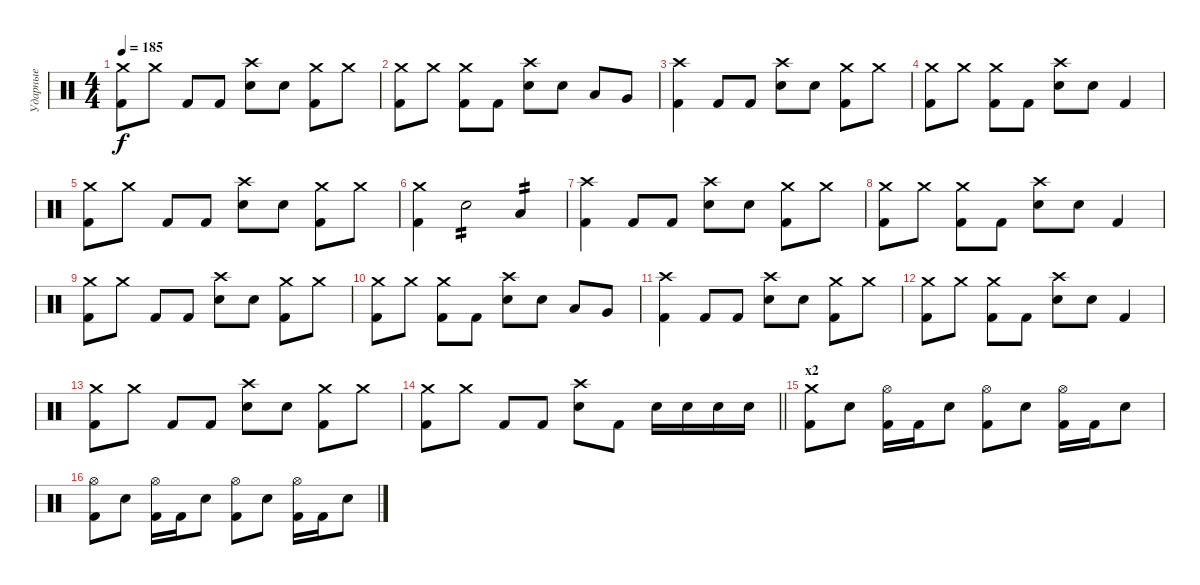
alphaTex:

\track ("Ударные" "Ударные") {instrument percussion}
\staff {score}
\articulation defaults
\ts (4 4)
\tempo 185
\clef neutral
\ks c
("Crash medium (hit)" "Kick (hit) 2").8{dy f} "Crash medium (hit)".8 "Kick (hit) 2".8 "Kick (hit) 2".8 ("Crash high (hit)" "Electric Snare (hit)").8 "Electric Snare (hit)".8 ("Crash medium (hit)" "Kick (hit) 2").8 "Crash medium (hit)".8 |
("Crash medium (hit)" "Kick (hit) 2").8 "Crash medium (hit)".8 ("Crash medium (hit)" "Kick (hit) 2").8 "Kick (hit) 2".8 ("Crash high (hit)" "Electric Snare (hit)").8 "Electric Snare (hit)".8 "Low Tom (hit)".8 "Very Low Tom (hit)".8 |
("Crash high (hit)" "Kick (hit) 2").4 "Kick (hit) 2".8 "Kick (hit) 2".8 ("Crash high (hit)" "Electric Snare (hit)").8 "Electric Snare (hit)".8 ("Crash medium (hit)" "Kick (hit) 2").8 "Crash medium (hit)".8 |
("Crash medium (hit)" "Kick (hit) 2").8 "Crash medium (hit)".8 ("Crash medium (hit)" "Kick (hit) 2").8 "Kick (hit) 2".8 ("Crash high (hit)" "Electric Snare (hit)").8 "Electric Snare (hit)".8 "Kick (hit) 2".4 |
("Crash medium (hit)" "Kick (hit) 2").8 "Crash medium (hit)".8 "Kick (hit) 2".8 "Kick (hit) 2".8 ("Crash high (hit)" "Electric Snare (hit)").8 "Electric Snare (hit)".8 ("Crash medium (hit)" "Kick (hit) 2").8 "Crash medium (hit)".8 |
("Crash medium (hit)" "Kick (hit) 2").4 "Electric Snare (hit)".2{tp 2} "Low Tom (hit)".4{tp 2} |
("Crash high (hit)" "Kick (hit) 2").4 "Kick (hit) 2".8 "Kick (hit) 2".8 ("Crash high (hit)" "Electric Snare (hit)").8 "Electric Snare (hit)".8 ("Crash medium (hit)" "Kick (hit) 2").8 "Crash medium (hit)".8 |
("Crash medium (hit)" "Kick (hit) 2").8 "Crash medium (hit)".8 ("Crash medium (hit)" "Kick (hit) 2").8 "Kick (hit) 2".8 ("Crash high (hit)" "Electric Snare (hit)").8 "Electric Snare (hit)".8 "Kick (hit) 2".4 |
("Crash medium (hit)" "Kick (hit) 2").8 "Crash medium (hit)".8 "Kick (hit) 2".8 "Kick (hit) 2".8 ("Crash high (hit)" "Electric Snare (hit)").8 "Electric Snare (hit)".8 ("Crash medium (hit)" "Kick (hit) 2").8 "Crash medium (hit)".8 |
("Crash medium (hit)" "Kick (hit) 2").8 "Crash medium (hit)".8 ("Crash medium (hit)" "Kick (hit) 2").8 "Kick (hit) 2".8 ("Crash high (hit)" "Electric Snare (hit)").8 "Electric Snare (hit)".8 "Low Tom (hit)".8 "Very Low Tom (hit)".8 |
("Crash high (hit)" "Kick (hit) 2").4 "Kick (hit) 2".8 "Kick (hit) 2".8 ("Crash high (hit)" "Electric Snare (hit)").8 "Electric Snare (hit)".8 ("Crash medium (hit)" "Kick (hit) 2").8 "Crash medium (hit)".8 |
("Crash medium (hit)" "Kick (hit) 2").8 "Crash medium (hit)".8 ("Crash medium (hit)" "Kick (hit) 2").8 "Kick (hit) 2".8 ("Crash high (hit)" "Electric Snare (hit)").8 "Electric Snare (hit)".8 "Kick (hit) 2".4 |
("Crash medium (hit)" "Kick (hit) 2").8 "Crash medium (hit)".8 "Kick (hit) 2".8 "Kick (hit) 2".8 ("Crash high (hit)" "Electric Snare (hit)").8 "Electric Snare (hit)".8 ("Crash medium (hit)" "Kick (hit) 2").8 "Crash medium (hit)".8 |
\barLineRight lightlight
("Crash medium (hit)" "Kick (hit) 2").8 "Crash medium (hit)".8 "Kick (hit) 2".8 "Kick (hit) 2".8 ("Crash high (hit)" "Electric Snare (hit)").8 "Kick (hit) 2".8 "Electric Snare (hit)".16 "Electric Snare (hit)".16 "Electric Snare (hit)".16 "Electric Snare (hit)".16 |
\section ("" "х2")
("Crash medium (hit)" "Kick (hit) 2").8 "Electric Snare (hit)".8 ("Hi-Hat (open)" "Kick (hit) 2").16 "Kick (hit) 2".16 "Electric Snare (hit)".8 ("Hi-Hat (open)" "Kick (hit) 2").8 "Electric Snare (hit)".8 ("Hi-Hat (open)" "Kick (hit) 2").16 "Kick (hit) 2".16 "Electric Snare (hit)".8 |
("Hi-Hat (open)" "Kick (hit) 2").8 "Electric Snare (hit)".8 ("Hi-Hat (open)" "Kick (hit) 2").16 "Kick (hit) 2".16 "Electric Snare (hit)".8 ("Hi-Hat (open)" "Kick (hit) 2").8 "Electric Snare (hit)".8 ("Hi-Hat (open)" "Kick (hit) 2").16 "Kick (hit) 2".16 "Electric Snare (hit)".8
